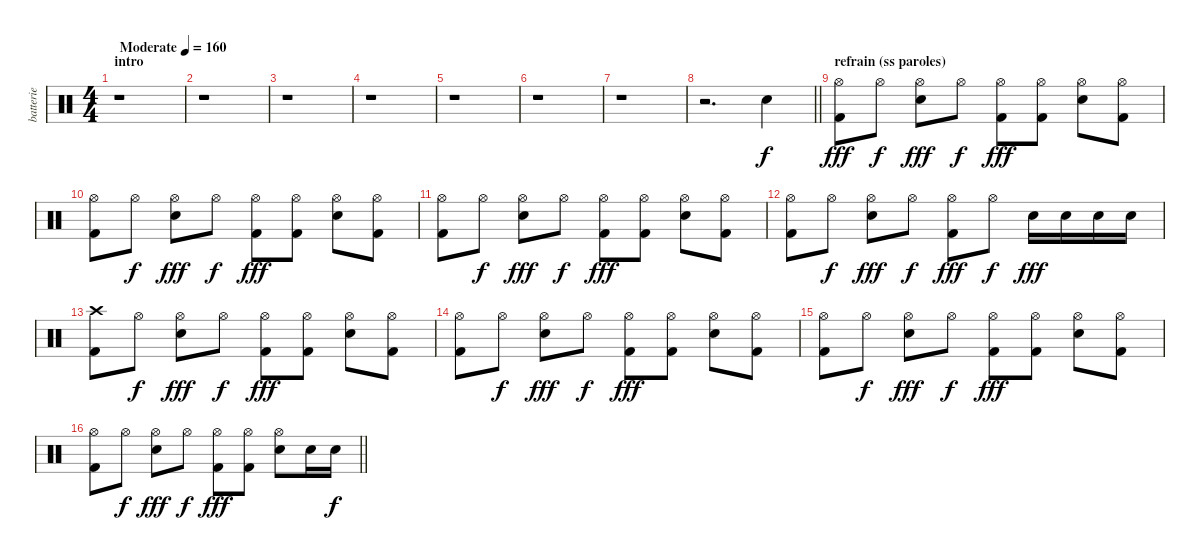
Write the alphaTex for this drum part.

\track ("batterie" "batterie") {instrument percussion}
\staff {score}
\articulation defaults
\ts (4 4)
\section ("" "intro")
\tempo (160 "Moderate")
\clef neutral
\ks c
r.1{dy f} |
r.1 |
r.1 |
r.1 |
r.1 |
r.1 |
r.1 |
\barLineRight lightlight
r.2{d} "Electric Snare (hit)".4 |
\section ("" "refrain (ss paroles)")
("Hi-Hat (open)" "Kick (hit) 2").8{dy fff} "Hi-Hat (open)".8{dy f} ("Hi-Hat (open)" "Electric Snare (hit)").8{dy fff} "Hi-Hat (open)".8{dy f} ("Hi-Hat (open)" "Kick (hit) 2").8{dy fff} ("Hi-Hat (open)" "Kick (hit) 2").8 ("Hi-Hat (open)" "Electric Snare (hit)").8 ("Hi-Hat (open)" "Kick (hit) 2").8 |
("Hi-Hat (open)" "Kick (hit) 2").8 "Hi-Hat (open)".8{dy f} ("Hi-Hat (open)" "Electric Snare (hit)").8{dy fff} "Hi-Hat (open)".8{dy f} ("Hi-Hat (open)" "Kick (hit) 2").8{dy fff} ("Hi-Hat (open)" "Kick (hit) 2").8 ("Hi-Hat (open)" "Electric Snare (hit)").8 ("Hi-Hat (open)" "Kick (hit) 2").8 |
("Hi-Hat (open)" "Kick (hit) 2").8 "Hi-Hat (open)".8{dy f} ("Hi-Hat (open)" "Electric Snare (hit)").8{dy fff} "Hi-Hat (open)".8{dy f} ("Hi-Hat (open)" "Kick (hit) 2").8{dy fff} ("Hi-Hat (open)" "Kick (hit) 2").8 ("Hi-Hat (open)" "Electric Snare (hit)").8 ("Hi-Hat (open)" "Kick (hit) 2").8 |
("Hi-Hat (open)" "Kick (hit) 2").8 "Hi-Hat (open)".8{dy f} ("Hi-Hat (open)" "Electric Snare (hit)").8{dy fff} "Hi-Hat (open)".8{dy f} ("Hi-Hat (open)" "Kick (hit) 2").8{dy fff} "Hi-Hat (open)".8{dy f} "Electric Snare (hit)".16{dy fff} "Electric Snare (hit)".16 "Electric Snare (hit)".16 "Electric Snare (hit)".16 |
("Crash high (hit)" "Kick (hit) 2").8 "Hi-Hat (open)".8{dy f} ("Hi-Hat (open)" "Electric Snare (hit)").8{dy fff} "Hi-Hat (open)".8{dy f} ("Hi-Hat (open)" "Kick (hit) 2").8{dy fff} ("Hi-Hat (open)" "Kick (hit) 2").8 ("Hi-Hat (open)" "Electric Snare (hit)").8 ("Hi-Hat (open)" "Kick (hit) 2").8 |
("Hi-Hat (open)" "Kick (hit) 2").8 "Hi-Hat (open)".8{dy f} ("Hi-Hat (open)" "Electric Snare (hit)").8{dy fff} "Hi-Hat (open)".8{dy f} ("Hi-Hat (open)" "Kick (hit) 2").8{dy fff} ("Hi-Hat (open)" "Kick (hit) 2").8 ("Hi-Hat (open)" "Electric Snare (hit)").8 ("Hi-Hat (open)" "Kick (hit) 2").8 |
("Hi-Hat (open)" "Kick (hit) 2").8 "Hi-Hat (open)".8{dy f} ("Hi-Hat (open)" "Electric Snare (hit)").8{dy fff} "Hi-Hat (open)".8{dy f} ("Hi-Hat (open)" "Kick (hit) 2").8{dy fff} ("Hi-Hat (open)" "Kick (hit) 2").8 ("Hi-Hat (open)" "Electric Snare (hit)").8 ("Hi-Hat (open)" "Kick (hit) 2").8 |
\barLineRight lightlight
("Hi-Hat (open)" "Kick (hit) 2").8 "Hi-Hat (open)".8{dy f} ("Hi-Hat (open)" "Electric Snare (hit)").8{dy fff} "Hi-Hat (open)".8{dy f} ("Hi-Hat (open)" "Kick (hit) 2").8{dy fff} ("Hi-Hat (open)" "Kick (hit) 2").8 ("Hi-Hat (open)" "Electric Snare (hit)").8 "Electric Snare (hit)".16 "Electric Snare (hit)".16{dy f}
